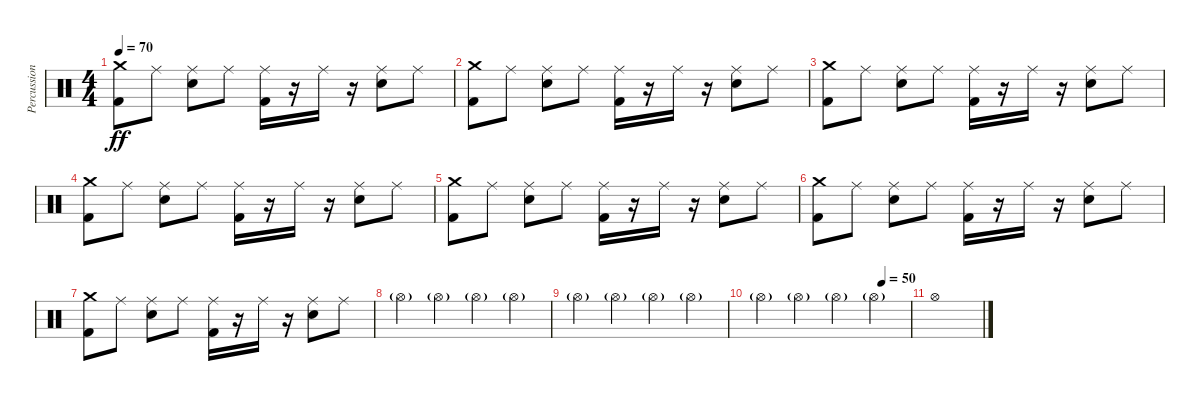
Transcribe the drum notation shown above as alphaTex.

\track ("Percussion" "Percussion") {instrument percussion}
\staff {score}
\articulation defaults
\ts (4 4)
\tempo 70
\clef neutral
\ks c
("Crash medium (hit)" "Kick (hit) 2").8{dy ff} "Ride (middle)".8 ("Ride (middle)" "Electric Snare (hit)").8 "Ride (middle)".8 ("Ride (middle)" "Kick (hit) 2").16 r.16 "Ride (middle)".16 r.16 ("Ride (middle)" "Electric Snare (hit)").8 "Ride (middle)".8 |
("Crash medium (hit)" "Kick (hit) 2").8 "Ride (middle)".8 ("Ride (middle)" "Electric Snare (hit)").8 "Ride (middle)".8 ("Ride (middle)" "Kick (hit) 2").16 r.16 "Ride (middle)".16 r.16 ("Ride (middle)" "Electric Snare (hit)").8 "Ride (middle)".8 |
("Crash medium (hit)" "Kick (hit) 2").8 "Ride (middle)".8 ("Ride (middle)" "Electric Snare (hit)").8 "Ride (middle)".8 ("Ride (middle)" "Kick (hit) 2").16 r.16 "Ride (middle)".16 r.16 ("Ride (middle)" "Electric Snare (hit)").8 "Ride (middle)".8 |
("Crash medium (hit)" "Kick (hit) 2").8 "Ride (middle)".8 ("Ride (middle)" "Electric Snare (hit)").8 "Ride (middle)".8 ("Ride (middle)" "Kick (hit) 2").16 r.16 "Ride (middle)".16 r.16 ("Ride (middle)" "Electric Snare (hit)").8 "Ride (middle)".8 |
("Crash medium (hit)" "Kick (hit) 2").8 "Ride (middle)".8 ("Ride (middle)" "Electric Snare (hit)").8 "Ride (middle)".8 ("Ride (middle)" "Kick (hit) 2").16 r.16 "Ride (middle)".16 r.16 ("Ride (middle)" "Electric Snare (hit)").8 "Ride (middle)".8 |
("Crash medium (hit)" "Kick (hit) 2").8 "Ride (middle)".8 ("Ride (middle)" "Electric Snare (hit)").8 "Ride (middle)".8 ("Ride (middle)" "Kick (hit) 2").16 r.16 "Ride (middle)".16 r.16 ("Ride (middle)" "Electric Snare (hit)").8 "Ride (middle)".8 |
("Crash medium (hit)" "Kick (hit) 2").8 "Ride (middle)".8 ("Ride (middle)" "Electric Snare (hit)").8 "Ride (middle)".8 ("Ride (middle)" "Kick (hit) 2").16 r.16 "Ride (middle)".16 r.16 ("Ride (middle)" "Electric Snare (hit)").8 "Ride (middle)".8 |
"Hi-Hat (open)"{g}.4 "Hi-Hat (open)"{g}.4 "Hi-Hat (open)"{g}.4 "Hi-Hat (open)"{g}.4 |
"Hi-Hat (open)"{g}.4 "Hi-Hat (open)"{g}.4 "Hi-Hat (open)"{g}.4 "Hi-Hat (open)"{g}.4 |
\tempo (50 0.8125)
"Hi-Hat (open)"{g}.4 "Hi-Hat (open)"{g}.4 "Hi-Hat (open)"{g}.4 "Hi-Hat (open)"{g}.4 |
"Hi-Hat (open)".1
